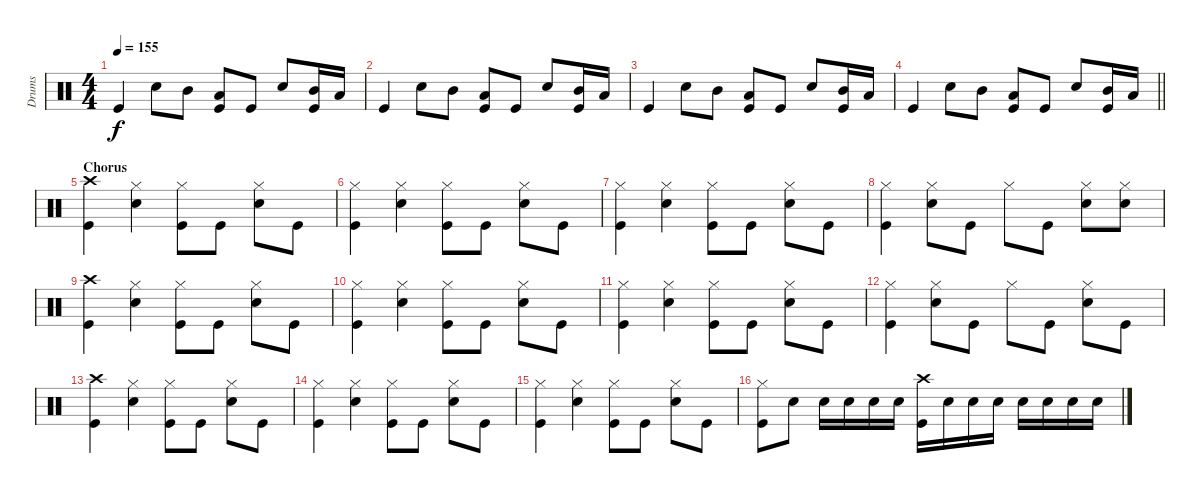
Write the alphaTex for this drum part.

\track ("Drums" "Drums") {instrument percussion}
\staff {score}
\articulation defaults
\ts (4 4)
\tempo 155
\clef neutral
\ks c "Kick (hit)".4{dy f} "Snare (hit) 2".8 "Mid Tom (hit)".8
("Low Tom (hit)" "Kick (hit)").8 "Kick (hit)".8 "Snare (hit) 2".8 ("Mid Tom (hit)" "Kick (hit)").16 "Low Tom (hit)".16 |
"Kick (hit)".4 "Snare (hit) 2".8 "Mid Tom (hit)".8 ("Low Tom (hit)" "Kick (hit)").8 "Kick (hit)".8 "Snare (hit) 2".8 ("Mid Tom (hit)" "Kick (hit)").16 "Low Tom (hit)".16 |
"Kick (hit)".4 "Snare (hit) 2".8 "Mid Tom (hit)".8 ("Low Tom (hit)" "Kick (hit)").8 "Kick (hit)".8 "Snare (hit) 2".8 ("Mid Tom (hit)" "Kick (hit)").16 "Low Tom (hit)".16 |
\barLineRight lightlight "Kick (hit)".4 "Snare (hit) 2".8 "Mid Tom (hit)".8
("Low Tom (hit)" "Kick (hit)").8 "Kick (hit)".8 "Snare (hit) 2".8 ("Mid Tom (hit)" "Kick (hit)").16 "Low Tom (hit)".16 |
\section ("" "Chorus")
("Crash high (hit)" "Kick (hit)").4 ("Hi-Hat (closed)" "Snare (hit) 2").4 ("Hi-Hat (closed)" "Kick (hit)").8 "Kick (hit)".8 ("Hi-Hat (closed)" "Snare (hit) 2").8 "Kick (hit)".8 |
("Hi-Hat (closed)" "Kick (hit)").4 ("Hi-Hat (closed)" "Snare (hit) 2").4 ("Hi-Hat (closed)" "Kick (hit)").8 "Kick (hit)".8 ("Hi-Hat (closed)" "Snare (hit) 2").8 "Kick (hit)".8 |
("Hi-Hat (closed)" "Kick (hit)").4 ("Hi-Hat (closed)" "Snare (hit) 2").4 ("Hi-Hat (closed)" "Kick (hit)").8 "Kick (hit)".8 ("Hi-Hat (closed)" "Snare (hit) 2").8 "Kick (hit)".8 |
("Hi-Hat (closed)" "Kick (hit)").4 ("Hi-Hat (closed)" "Snare (hit) 2").8 "Kick (hit)".8 "Hi-Hat (closed)".8 "Kick (hit)".8 ("Hi-Hat (closed)" "Snare (hit) 2").8 ("Hi-Hat (closed)" "Snare (hit) 2").8 |
("Crash high (hit)" "Kick (hit)").4 ("Hi-Hat (closed)" "Snare (hit) 2").4 ("Hi-Hat (closed)" "Kick (hit)").8 "Kick (hit)".8 ("Hi-Hat (closed)" "Snare (hit) 2").8 "Kick (hit)".8 |
("Hi-Hat (closed)" "Kick (hit)").4 ("Hi-Hat (closed)" "Snare (hit) 2").4 ("Hi-Hat (closed)" "Kick (hit)").8 "Kick (hit)".8 ("Hi-Hat (closed)" "Snare (hit) 2").8 "Kick (hit)".8 |
("Hi-Hat (closed)" "Kick (hit)").4 ("Hi-Hat (closed)" "Snare (hit) 2").4 ("Hi-Hat (closed)" "Kick (hit)").8 "Kick (hit)".8 ("Hi-Hat (closed)" "Snare (hit) 2").8 "Kick (hit)".8 |
("Hi-Hat (closed)" "Kick (hit)").4 ("Hi-Hat (closed)" "Snare (hit) 2").8 "Kick (hit)".8 "Hi-Hat (closed)".8 "Kick (hit)".8 ("Hi-Hat (closed)" "Snare (hit) 2").8 "Kick (hit)".8 |
("Crash high (hit)" "Kick (hit)").4 ("Hi-Hat (closed)" "Snare (hit) 2").4 ("Hi-Hat (closed)" "Kick (hit)").8 "Kick (hit)".8 ("Hi-Hat (closed)" "Snare (hit) 2").8 "Kick (hit)".8 |
("Hi-Hat (closed)" "Kick (hit)").4 ("Hi-Hat (closed)" "Snare (hit) 2").4 ("Hi-Hat (closed)" "Kick (hit)").8 "Kick (hit)".8 ("Hi-Hat (closed)" "Snare (hit) 2").8 "Kick (hit)".8 |
("Hi-Hat (closed)" "Kick (hit)").4 ("Hi-Hat (closed)" "Snare (hit) 2").4 ("Hi-Hat (closed)" "Kick (hit)").8 "Kick (hit)".8 ("Hi-Hat (closed)" "Snare (hit) 2").8 "Kick (hit)".8 |
("Hi-Hat (closed)" "Kick (hit)").8 "Snare (hit) 2".8 "Snare (hit) 2".16 "Snare (hit) 2".16 "Snare (hit) 2".16 "Snare (hit) 2".16 ("Crash high (hit)" "Kick (hit)").16 "Snare (hit) 2".16 "Snare (hit) 2".16 "Snare (hit) 2".16 "Snare (hit) 2".16 "Snare (hit) 2".16 "Snare (hit) 2".16 "Snare (hit) 2".16
